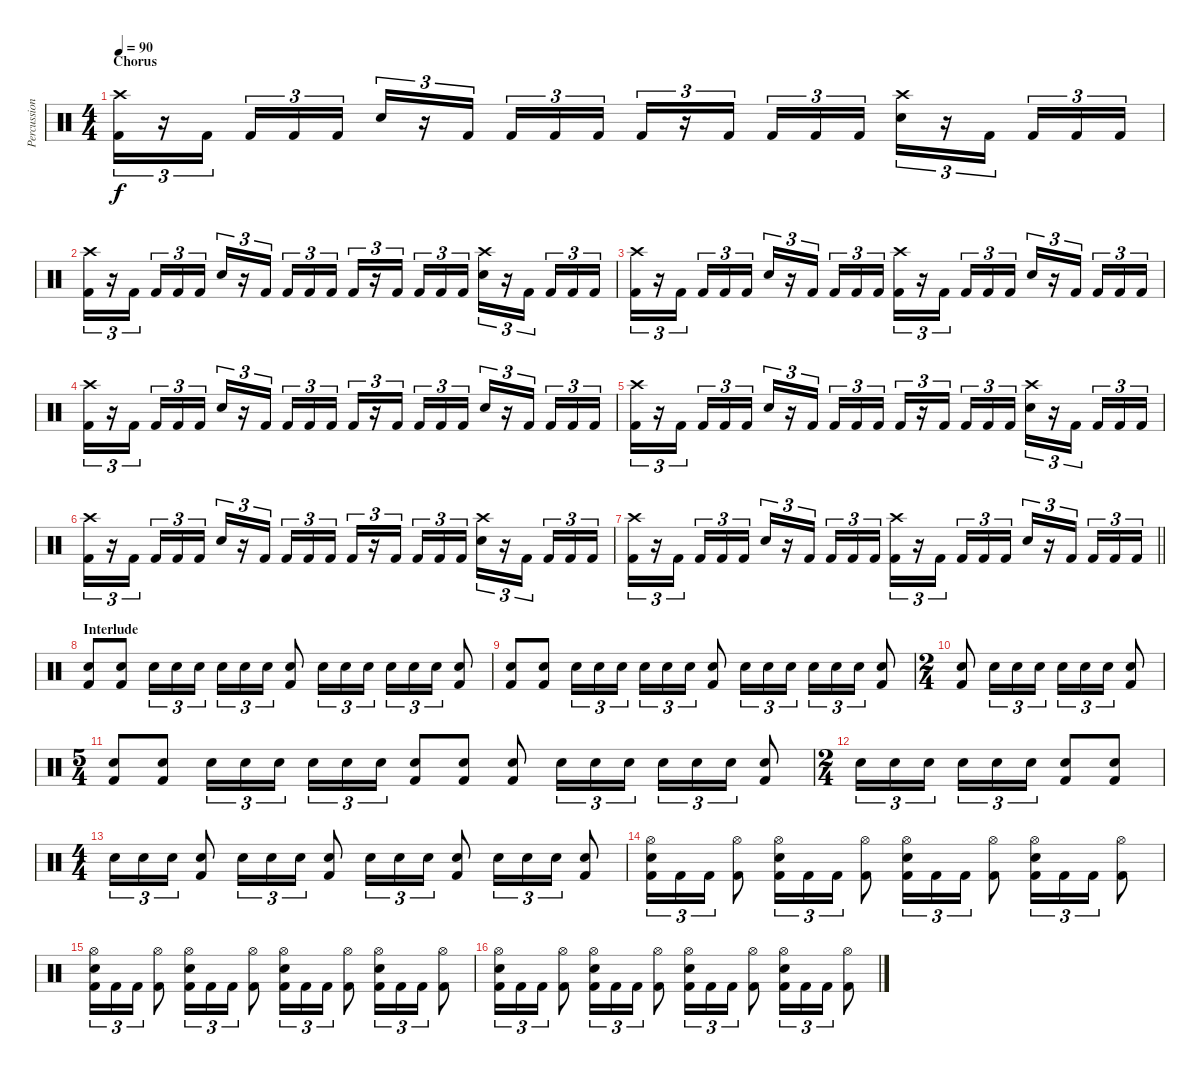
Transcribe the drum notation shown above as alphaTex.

\track ("Percussion" "Percussion") {instrument percussion}
\staff {score}
\articulation defaults
\ts (4 4)
\section ("" "Chorus")
\tempo 90
\clef neutral
\ks c
("Crash high (hit)" "Kick (hit) 2").16{tu (3 2) dy f} r.16{tu (3 2)} "Kick (hit) 2".16{tu (3 2) beam splitsecondary} "Kick (hit) 2".16{tu (3 2)} "Kick (hit) 2".16{tu (3 2)} "Kick (hit) 2".16{tu (3 2)} "Snare (hit) 2".16{tu (3 2)} r.16{tu (3 2)} "Kick (hit) 2".16{tu (3 2) beam splitsecondary} "Kick (hit) 2".16{tu (3 2)} "Kick (hit) 2".16{tu (3 2)} "Kick (hit) 2".16{tu (3 2)} "Kick (hit) 2".16{tu (3 2)} r.16{tu (3 2)} "Kick (hit) 2".16{tu (3 2) beam splitsecondary} "Kick (hit) 2".16{tu (3 2)} "Kick (hit) 2".16{tu (3 2)} "Kick (hit) 2".16{tu (3 2)} ("Crash high (hit)" "Snare (hit) 2").16{tu (3 2)} r.16{tu (3 2)} "Kick (hit) 2".16{tu (3 2) beam splitsecondary} "Kick (hit) 2".16{tu (3 2)} "Kick (hit) 2".16{tu (3 2)} "Kick (hit) 2".16{tu (3 2)} |
("Crash high (hit)" "Kick (hit) 2").16{tu (3 2)} r.16{tu (3 2)} "Kick (hit) 2".16{tu (3 2) beam splitsecondary} "Kick (hit) 2".16{tu (3 2)} "Kick (hit) 2".16{tu (3 2)} "Kick (hit) 2".16{tu (3 2)} "Snare (hit) 2".16{tu (3 2)} r.16{tu (3 2)} "Kick (hit) 2".16{tu (3 2) beam splitsecondary} "Kick (hit) 2".16{tu (3 2)} "Kick (hit) 2".16{tu (3 2)} "Kick (hit) 2".16{tu (3 2)} "Kick (hit) 2".16{tu (3 2)} r.16{tu (3 2)} "Kick (hit) 2".16{tu (3 2) beam splitsecondary} "Kick (hit) 2".16{tu (3 2)} "Kick (hit) 2".16{tu (3 2)} "Kick (hit) 2".16{tu (3 2)} ("Crash high (hit)" "Snare (hit) 2").16{tu (3 2)} r.16{tu (3 2)} "Kick (hit) 2".16{tu (3 2) beam splitsecondary} "Kick (hit) 2".16{tu (3 2)} "Kick (hit) 2".16{tu (3 2)} "Kick (hit) 2".16{tu (3 2)} |
("Crash high (hit)" "Kick (hit) 2").16{tu (3 2)} r.16{tu (3 2)} "Kick (hit) 2".16{tu (3 2) beam splitsecondary} "Kick (hit) 2".16{tu (3 2)} "Kick (hit) 2".16{tu (3 2)} "Kick (hit) 2".16{tu (3 2)} "Snare (hit) 2".16{tu (3 2)} r.16{tu (3 2)} "Kick (hit) 2".16{tu (3 2) beam splitsecondary} "Kick (hit) 2".16{tu (3 2)} "Kick (hit) 2".16{tu (3 2)} "Kick (hit) 2".16{tu (3 2)} ("Crash high (hit)" "Kick (hit) 2").16{tu (3 2)} r.16{tu (3 2)} "Kick (hit) 2".16{tu (3 2) beam splitsecondary} "Kick (hit) 2".16{tu (3 2)} "Kick (hit) 2".16{tu (3 2)} "Kick (hit) 2".16{tu (3 2)} "Snare (hit) 2".16{tu (3 2)} r.16{tu (3 2)} "Kick (hit) 2".16{tu (3 2) beam splitsecondary} "Kick (hit) 2".16{tu (3 2)} "Kick (hit) 2".16{tu (3 2)} "Kick (hit) 2".16{tu (3 2)} |
("Crash high (hit)" "Kick (hit) 2").16{tu (3 2)} r.16{tu (3 2)} "Kick (hit) 2".16{tu (3 2) beam splitsecondary} "Kick (hit) 2".16{tu (3 2)} "Kick (hit) 2".16{tu (3 2)} "Kick (hit) 2".16{tu (3 2)} "Snare (hit) 2".16{tu (3 2)} r.16{tu (3 2)} "Kick (hit) 2".16{tu (3 2) beam splitsecondary} "Kick (hit) 2".16{tu (3 2)} "Kick (hit) 2".16{tu (3 2)} "Kick (hit) 2".16{tu (3 2)} "Kick (hit) 2".16{tu (3 2)} r.16{tu (3 2)} "Kick (hit) 2".16{tu (3 2) beam splitsecondary} "Kick (hit) 2".16{tu (3 2)} "Kick (hit) 2".16{tu (3 2)} "Kick (hit) 2".16{tu (3 2)} "Snare (hit) 2".16{tu (3 2)} r.16{tu (3 2)} "Kick (hit) 2".16{tu (3 2) beam splitsecondary} "Kick (hit) 2".16{tu (3 2)} "Kick (hit) 2".16{tu (3 2)} "Kick (hit) 2".16{tu (3 2)} |
("Crash high (hit)" "Kick (hit) 2").16{tu (3 2)} r.16{tu (3 2)} "Kick (hit) 2".16{tu (3 2) beam splitsecondary} "Kick (hit) 2".16{tu (3 2)} "Kick (hit) 2".16{tu (3 2)} "Kick (hit) 2".16{tu (3 2)} "Snare (hit) 2".16{tu (3 2)} r.16{tu (3 2)} "Kick (hit) 2".16{tu (3 2) beam splitsecondary} "Kick (hit) 2".16{tu (3 2)} "Kick (hit) 2".16{tu (3 2)} "Kick (hit) 2".16{tu (3 2)} "Kick (hit) 2".16{tu (3 2)} r.16{tu (3 2)} "Kick (hit) 2".16{tu (3 2) beam splitsecondary} "Kick (hit) 2".16{tu (3 2)} "Kick (hit) 2".16{tu (3 2)} "Kick (hit) 2".16{tu (3 2)} ("Crash high (hit)" "Snare (hit) 2").16{tu (3 2)} r.16{tu (3 2)} "Kick (hit) 2".16{tu (3 2) beam splitsecondary} "Kick (hit) 2".16{tu (3 2)} "Kick (hit) 2".16{tu (3 2)} "Kick (hit) 2".16{tu (3 2)} |
("Crash high (hit)" "Kick (hit) 2").16{tu (3 2)} r.16{tu (3 2)} "Kick (hit) 2".16{tu (3 2) beam splitsecondary} "Kick (hit) 2".16{tu (3 2)} "Kick (hit) 2".16{tu (3 2)} "Kick (hit) 2".16{tu (3 2)} "Snare (hit) 2".16{tu (3 2)} r.16{tu (3 2)} "Kick (hit) 2".16{tu (3 2) beam splitsecondary} "Kick (hit) 2".16{tu (3 2)} "Kick (hit) 2".16{tu (3 2)} "Kick (hit) 2".16{tu (3 2)} "Kick (hit) 2".16{tu (3 2)} r.16{tu (3 2)} "Kick (hit) 2".16{tu (3 2) beam splitsecondary} "Kick (hit) 2".16{tu (3 2)} "Kick (hit) 2".16{tu (3 2)} "Kick (hit) 2".16{tu (3 2)} ("Crash high (hit)" "Snare (hit) 2").16{tu (3 2)} r.16{tu (3 2)} "Kick (hit) 2".16{tu (3 2) beam splitsecondary} "Kick (hit) 2".16{tu (3 2)} "Kick (hit) 2".16{tu (3 2)} "Kick (hit) 2".16{tu (3 2)} |
\barLineRight lightlight
("Crash high (hit)" "Kick (hit) 2").16{tu (3 2)} r.16{tu (3 2)} "Kick (hit) 2".16{tu (3 2) beam splitsecondary} "Kick (hit) 2".16{tu (3 2)} "Kick (hit) 2".16{tu (3 2)} "Kick (hit) 2".16{tu (3 2)} "Snare (hit) 2".16{tu (3 2)} r.16{tu (3 2)} "Kick (hit) 2".16{tu (3 2) beam splitsecondary} "Kick (hit) 2".16{tu (3 2)} "Kick (hit) 2".16{tu (3 2)} "Kick (hit) 2".16{tu (3 2)} ("Crash high (hit)" "Kick (hit) 2").16{tu (3 2)} r.16{tu (3 2)} "Kick (hit) 2".16{tu (3 2) beam splitsecondary} "Kick (hit) 2".16{tu (3 2)} "Kick (hit) 2".16{tu (3 2)} "Kick (hit) 2".16{tu (3 2)} "Snare (hit) 2".16{tu (3 2)} r.16{tu (3 2)} "Kick (hit) 2".16{tu (3 2) beam splitsecondary} "Kick (hit) 2".16{tu (3 2)} "Kick (hit) 2".16{tu (3 2)} "Kick (hit) 2".16{tu (3 2)} |
\section ("" "Interlude")
("Snare (hit) 2" "Kick (hit) 2").8 ("Snare (hit) 2" "Kick (hit) 2").8 "Snare (hit) 2".16{tu (3 2)} "Snare (hit) 2".16{tu (3 2)} "Snare (hit) 2".16{tu (3 2) beam splitsecondary} "Snare (hit) 2".16{tu (3 2)} "Snare (hit) 2".16{tu (3 2)} "Snare (hit) 2".16{tu (3 2)} ("Snare (hit) 2" "Kick (hit) 2").8 "Snare (hit) 2".16{tu (3 2)} "Snare (hit) 2".16{tu (3 2)} "Snare (hit) 2".16{tu (3 2)} "Snare (hit) 2".16{tu (3 2)} "Snare (hit) 2".16{tu (3 2)} "Snare (hit) 2".16{tu (3 2)} ("Snare (hit) 2" "Kick (hit) 2").8 |
("Snare (hit) 2" "Kick (hit) 2").8 ("Snare (hit) 2" "Kick (hit) 2").8 "Snare (hit) 2".16{tu (3 2)} "Snare (hit) 2".16{tu (3 2)} "Snare (hit) 2".16{tu (3 2) beam splitsecondary} "Snare (hit) 2".16{tu (3 2)} "Snare (hit) 2".16{tu (3 2)} "Snare (hit) 2".16{tu (3 2)} ("Snare (hit) 2" "Kick (hit) 2").8 "Snare (hit) 2".16{tu (3 2)} "Snare (hit) 2".16{tu (3 2)} "Snare (hit) 2".16{tu (3 2)} "Snare (hit) 2".16{tu (3 2)} "Snare (hit) 2".16{tu (3 2)} "Snare (hit) 2".16{tu (3 2)} ("Snare (hit) 2" "Kick (hit) 2").8 |
\ts (2 4)
("Snare (hit) 2" "Kick (hit) 2").8 "Snare (hit) 2".16{tu (3 2)} "Snare (hit) 2".16{tu (3 2)} "Snare (hit) 2".16{tu (3 2)} "Snare (hit) 2".16{tu (3 2)} "Snare (hit) 2".16{tu (3 2)} "Snare (hit) 2".16{tu (3 2)} ("Snare (hit) 2" "Kick (hit) 2").8 |
\ts (5 4)
("Snare (hit) 2" "Kick (hit) 2").8 ("Snare (hit) 2" "Kick (hit) 2").8 "Snare (hit) 2".16{tu (3 2)} "Snare (hit) 2".16{tu (3 2)} "Snare (hit) 2".16{tu (3 2) beam splitsecondary} "Snare (hit) 2".16{tu (3 2)} "Snare (hit) 2".16{tu (3 2)} "Snare (hit) 2".16{tu (3 2)} ("Snare (hit) 2" "Kick (hit) 2").8 ("Snare (hit) 2" "Kick (hit) 2").8 ("Snare (hit) 2" "Kick (hit) 2").8 "Snare (hit) 2".16{tu (3 2)} "Snare (hit) 2".16{tu (3 2)} "Snare (hit) 2".16{tu (3 2)} "Snare (hit) 2".16{tu (3 2)} "Snare (hit) 2".16{tu (3 2)} "Snare (hit) 2".16{tu (3 2)} ("Snare (hit) 2" "Kick (hit) 2").8 |
\ts (2 4)
"Snare (hit) 2".16{tu (3 2)} "Snare (hit) 2".16{tu (3 2)} "Snare (hit) 2".16{tu (3 2) beam splitsecondary} "Snare (hit) 2".16{tu (3 2)} "Snare (hit) 2".16{tu (3 2)} "Snare (hit) 2".16{tu (3 2)} ("Snare (hit) 2" "Kick (hit) 2").8 ("Snare (hit) 2" "Kick (hit) 2").8 |
\ts (4 4)
"Snare (hit) 2".16{tu (3 2)} "Snare (hit) 2".16{tu (3 2)} "Snare (hit) 2".16{tu (3 2)} ("Snare (hit) 2" "Kick (hit) 2").8 "Snare (hit) 2".16{tu (3 2)} "Snare (hit) 2".16{tu (3 2)} "Snare (hit) 2".16{tu (3 2)} ("Snare (hit) 2" "Kick (hit) 2").8 "Snare (hit) 2".16{tu (3 2)} "Snare (hit) 2".16{tu (3 2)} "Snare (hit) 2".16{tu (3 2)} ("Snare (hit) 2" "Kick (hit) 2").8 "Snare (hit) 2".16{tu (3 2)} "Snare (hit) 2".16{tu (3 2)} "Snare (hit) 2".16{tu (3 2)} ("Snare (hit) 2" "Kick (hit) 2").8 |
("Hi-Hat (open)" "Snare (hit) 2" "Kick (hit) 2").16{tu (3 2)} "Kick (hit) 2".16{tu (3 2)} "Kick (hit) 2".16{tu (3 2)} ("Hi-Hat (open)" "Kick (hit) 2").8 ("Hi-Hat (open)" "Snare (hit) 2" "Kick (hit) 2").16{tu (3 2)} "Kick (hit) 2".16{tu (3 2)} "Kick (hit) 2".16{tu (3 2)} ("Hi-Hat (open)" "Kick (hit) 2").8 ("Hi-Hat (open)" "Snare (hit) 2" "Kick (hit) 2").16{tu (3 2)} "Kick (hit) 2".16{tu (3 2)} "Kick (hit) 2".16{tu (3 2)} ("Hi-Hat (open)" "Kick (hit) 2").8 ("Hi-Hat (open)" "Snare (hit) 2" "Kick (hit) 2").16{tu (3 2)} "Kick (hit) 2".16{tu (3 2)} "Kick (hit) 2".16{tu (3 2)} ("Hi-Hat (open)" "Kick (hit) 2").8 |
("Hi-Hat (open)" "Snare (hit) 2" "Kick (hit) 2").16{tu (3 2)} "Kick (hit) 2".16{tu (3 2)} "Kick (hit) 2".16{tu (3 2)} ("Hi-Hat (open)" "Kick (hit) 2").8 ("Hi-Hat (open)" "Snare (hit) 2" "Kick (hit) 2").16{tu (3 2)} "Kick (hit) 2".16{tu (3 2)} "Kick (hit) 2".16{tu (3 2)} ("Hi-Hat (open)" "Kick (hit) 2").8 ("Hi-Hat (open)" "Snare (hit) 2" "Kick (hit) 2").16{tu (3 2)} "Kick (hit) 2".16{tu (3 2)} "Kick (hit) 2".16{tu (3 2)} ("Hi-Hat (open)" "Kick (hit) 2").8 ("Hi-Hat (open)" "Snare (hit) 2" "Kick (hit) 2").16{tu (3 2)} "Kick (hit) 2".16{tu (3 2)} "Kick (hit) 2".16{tu (3 2)} ("Hi-Hat (open)" "Kick (hit) 2").8 |
("Hi-Hat (open)" "Snare (hit) 2" "Kick (hit) 2").16{tu (3 2)} "Kick (hit) 2".16{tu (3 2)} "Kick (hit) 2".16{tu (3 2)} ("Hi-Hat (open)" "Kick (hit) 2").8 ("Hi-Hat (open)" "Snare (hit) 2" "Kick (hit) 2").16{tu (3 2)} "Kick (hit) 2".16{tu (3 2)} "Kick (hit) 2".16{tu (3 2)} ("Hi-Hat (open)" "Kick (hit) 2").8 ("Hi-Hat (open)" "Snare (hit) 2" "Kick (hit) 2").16{tu (3 2)} "Kick (hit) 2".16{tu (3 2)} "Kick (hit) 2".16{tu (3 2)} ("Hi-Hat (open)" "Kick (hit) 2").8 ("Hi-Hat (open)" "Snare (hit) 2" "Kick (hit) 2").16{tu (3 2)} "Kick (hit) 2".16{tu (3 2)} "Kick (hit) 2".16{tu (3 2)} ("Hi-Hat (open)" "Kick (hit) 2").8
